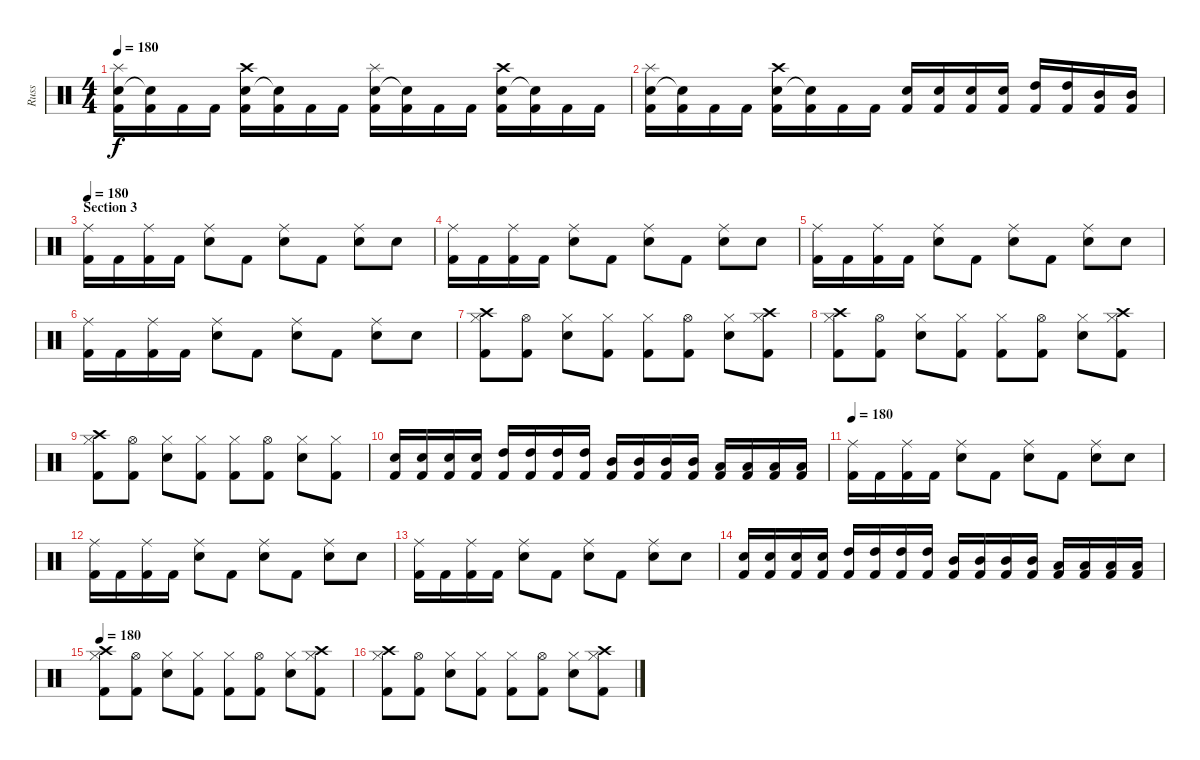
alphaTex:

\track ("Russ" "Russ") {instrument percussion}
\staff {score}
\articulation defaults
\ts (4 4)
\tempo 180
\clef neutral
\ks c
("Kick (hit) 2" "Snare (hit) 2" "Splash (hit)").16{dy f} ("Kick (hit) 2" "Snare (hit)"{t}).16 "Kick (hit) 2".16 "Kick (hit) 2".16 ("Kick (hit) 2" "Snare (hit) 2" "Crash high (hit)").16 ("Kick (hit) 2" "Snare (hit)"{t}).16 "Kick (hit) 2".16 "Kick (hit) 2".16 ("Kick (hit) 2" "Snare (hit) 2" "Splash (hit)").16 ("Kick (hit) 2" "Snare (hit)"{t}).16 "Kick (hit) 2".16 "Kick (hit) 2".16 ("Kick (hit) 2" "Snare (hit) 2" "Crash high (hit)").16 ("Kick (hit) 2" "Snare (hit)"{t}).16 "Kick (hit) 2".16 "Kick (hit) 2".16 |
("Kick (hit) 2" "Snare (hit) 2" "Splash (hit)").16 ("Kick (hit) 2" "Snare (hit)"{t}).16 "Kick (hit) 2".16 "Kick (hit) 2".16 ("Kick (hit) 2" "Snare (hit) 2" "Crash high (hit)").16 ("Kick (hit) 2" "Snare (hit)"{t}).16 "Kick (hit) 2".16 "Kick (hit) 2".16 ("Kick (hit) 2" "Snare (hit) 2").16 ("Kick (hit) 2" "Snare (hit) 2").16 ("Kick (hit) 2" "Snare (hit) 2").16 ("Kick (hit) 2" "Snare (hit) 2").16 ("Kick (hit) 2" "High Tom (hit)").16 ("Kick (hit) 2" "High Tom (hit)").16 ("Kick (hit) 2" "Mid Tom (hit)").16 ("Kick (hit) 2" "Mid Tom (hit)").16 |
\section ("" "Section 3")
\tempo 180
("Ride (middle)" "Kick (hit) 2").16 "Kick (hit) 2".16 ("Ride (middle)" "Kick (hit) 2").16 "Kick (hit) 2".16 ("Ride (middle)" "Snare (hit) 2").8 "Kick (hit) 2".8 ("Ride (middle)" "Snare (hit) 2").8 "Kick (hit) 2".8 ("Ride (middle)" "Snare (hit) 2").8 "Snare (hit) 2".8 |
("Ride (middle)" "Kick (hit) 2").16 "Kick (hit) 2".16 ("Ride (middle)" "Kick (hit) 2").16 "Kick (hit) 2".16 ("Ride (middle)" "Snare (hit) 2").8 "Kick (hit) 2".8 ("Ride (middle)" "Snare (hit) 2").8 "Kick (hit) 2".8 ("Ride (middle)" "Snare (hit) 2").8 "Snare (hit) 2".8 |
("Ride (middle)" "Kick (hit) 2").16 "Kick (hit) 2".16 ("Ride (middle)" "Kick (hit) 2").16 "Kick (hit) 2".16 ("Ride (middle)" "Snare (hit) 2").8 "Kick (hit) 2".8 ("Ride (middle)" "Snare (hit) 2").8 "Kick (hit) 2".8 ("Ride (middle)" "Snare (hit) 2").8 "Snare (hit) 2".8 |
("Ride (middle)" "Kick (hit) 2").16 "Kick (hit) 2".16 ("Ride (middle)" "Kick (hit) 2").16 "Kick (hit) 2".16 ("Ride (middle)" "Snare (hit) 2").8 "Kick (hit) 2".8 ("Ride (middle)" "Snare (hit) 2").8 "Kick (hit) 2".8 ("Ride (middle)" "Snare (hit) 2").8 "Snare (hit) 2".8 |
("Kick (hit) 2" "Crash high (hit)" "Hi-Hat (closed)").8 ("Kick (hit) 2" "Hi-Hat (open)").8 ("Snare (hit) 2" "Hi-Hat (closed)").8 ("Kick (hit) 2" "Hi-Hat (closed)").8 ("Kick (hit) 2" "Hi-Hat (closed)").8 ("Kick (hit) 2" "Hi-Hat (open)").8 ("Snare (hit) 2" "Hi-Hat (closed)").8 ("Kick (hit) 2" "Crash high (hit)" "Hi-Hat (closed)").8 |
("Kick (hit) 2" "Crash high (hit)" "Hi-Hat (closed)").8 ("Kick (hit) 2" "Hi-Hat (open)").8 ("Snare (hit) 2" "Hi-Hat (closed)").8 ("Kick (hit) 2" "Hi-Hat (closed)").8 ("Kick (hit) 2" "Hi-Hat (closed)").8 ("Kick (hit) 2" "Hi-Hat (open)").8 ("Snare (hit) 2" "Hi-Hat (closed)").8 ("Kick (hit) 2" "Crash high (hit)" "Hi-Hat (closed)").8 |
("Kick (hit) 2" "Crash high (hit)" "Hi-Hat (closed)").8 ("Kick (hit) 2" "Hi-Hat (open)").8 ("Snare (hit) 2" "Hi-Hat (closed)").8 ("Kick (hit) 2" "Hi-Hat (closed)").8 ("Kick (hit) 2" "Hi-Hat (closed)").8 ("Kick (hit) 2" "Hi-Hat (open)").8 ("Snare (hit) 2" "Hi-Hat (closed)").8 ("Kick (hit) 2" "Hi-Hat (closed)").8 |
("Kick (hit) 2" "Snare (hit) 2").16 ("Kick (hit) 2" "Snare (hit) 2").16 ("Kick (hit) 2" "Snare (hit) 2").16 ("Kick (hit) 2" "Snare (hit) 2").16 ("Kick (hit) 2" "High Tom (hit)").16 ("Kick (hit) 2" "High Tom (hit)").16 ("Kick (hit) 2" "High Tom (hit)").16 ("Kick (hit) 2" "High Tom (hit)").16 ("Kick (hit) 2" "Mid Tom (hit)").16 ("Kick (hit) 2" "Mid Tom (hit)").16 ("Kick (hit) 2" "Mid Tom (hit)").16 ("Kick (hit) 2" "Mid Tom (hit)").16 ("Kick (hit) 2" "Low Floor Tom (hit)").16 ("Kick (hit) 2" "Low Floor Tom (hit)").16 ("Kick (hit) 2" "Low Floor Tom (hit)").16 ("Kick (hit) 2" "Low Floor Tom (hit)").16 |
\tempo 180
("Ride (middle)" "Kick (hit) 2").16 "Kick (hit) 2".16 ("Ride (middle)" "Kick (hit) 2").16 "Kick (hit) 2".16 ("Ride (middle)" "Snare (hit) 2").8 "Kick (hit) 2".8 ("Ride (middle)" "Snare (hit) 2").8 "Kick (hit) 2".8 ("Ride (middle)" "Snare (hit) 2").8 "Snare (hit) 2".8 |
("Ride (middle)" "Kick (hit) 2").16 "Kick (hit) 2".16 ("Ride (middle)" "Kick (hit) 2").16 "Kick (hit) 2".16 ("Ride (middle)" "Snare (hit) 2").8 "Kick (hit) 2".8 ("Ride (middle)" "Snare (hit) 2").8 "Kick (hit) 2".8 ("Ride (middle)" "Snare (hit) 2").8 "Snare (hit) 2".8 |
("Ride (middle)" "Kick (hit) 2").16 "Kick (hit) 2".16 ("Ride (middle)" "Kick (hit) 2").16 "Kick (hit) 2".16 ("Ride (middle)" "Snare (hit) 2").8 "Kick (hit) 2".8 ("Ride (middle)" "Snare (hit) 2").8 "Kick (hit) 2".8 ("Ride (middle)" "Snare (hit) 2").8 "Snare (hit) 2".8 |
("Kick (hit) 2" "Snare (hit) 2").16 ("Kick (hit) 2" "Snare (hit) 2").16 ("Kick (hit) 2" "Snare (hit) 2").16 ("Kick (hit) 2" "Snare (hit) 2").16 ("Kick (hit) 2" "High Tom (hit)").16 ("Kick (hit) 2" "High Tom (hit)").16 ("Kick (hit) 2" "High Tom (hit)").16 ("Kick (hit) 2" "High Tom (hit)").16 ("Kick (hit) 2" "Mid Tom (hit)").16 ("Kick (hit) 2" "Mid Tom (hit)").16 ("Kick (hit) 2" "Mid Tom (hit)").16 ("Kick (hit) 2" "Mid Tom (hit)").16 ("Kick (hit) 2" "Low Floor Tom (hit)").16 ("Kick (hit) 2" "Low Floor Tom (hit)").16 ("Kick (hit) 2" "Low Floor Tom (hit)").16 ("Kick (hit) 2" "Low Floor Tom (hit)").16 |
\tempo 180
("Kick (hit) 2" "Crash high (hit)" "Hi-Hat (closed)").8 ("Kick (hit) 2" "Hi-Hat (open)").8 ("Snare (hit) 2" "Hi-Hat (closed)").8 ("Kick (hit) 2" "Hi-Hat (closed)").8 ("Kick (hit) 2" "Hi-Hat (closed)").8 ("Kick (hit) 2" "Hi-Hat (open)").8 ("Snare (hit) 2" "Hi-Hat (closed)").8 ("Kick (hit) 2" "Crash high (hit)" "Hi-Hat (closed)").8 |
("Kick (hit) 2" "Crash high (hit)" "Hi-Hat (closed)").8 ("Kick (hit) 2" "Hi-Hat (open)").8 ("Snare (hit) 2" "Hi-Hat (closed)").8 ("Kick (hit) 2" "Hi-Hat (closed)").8 ("Kick (hit) 2" "Hi-Hat (closed)").8 ("Kick (hit) 2" "Hi-Hat (open)").8 ("Snare (hit) 2" "Hi-Hat (closed)").8 ("Kick (hit) 2" "Crash high (hit)" "Hi-Hat (closed)").8
